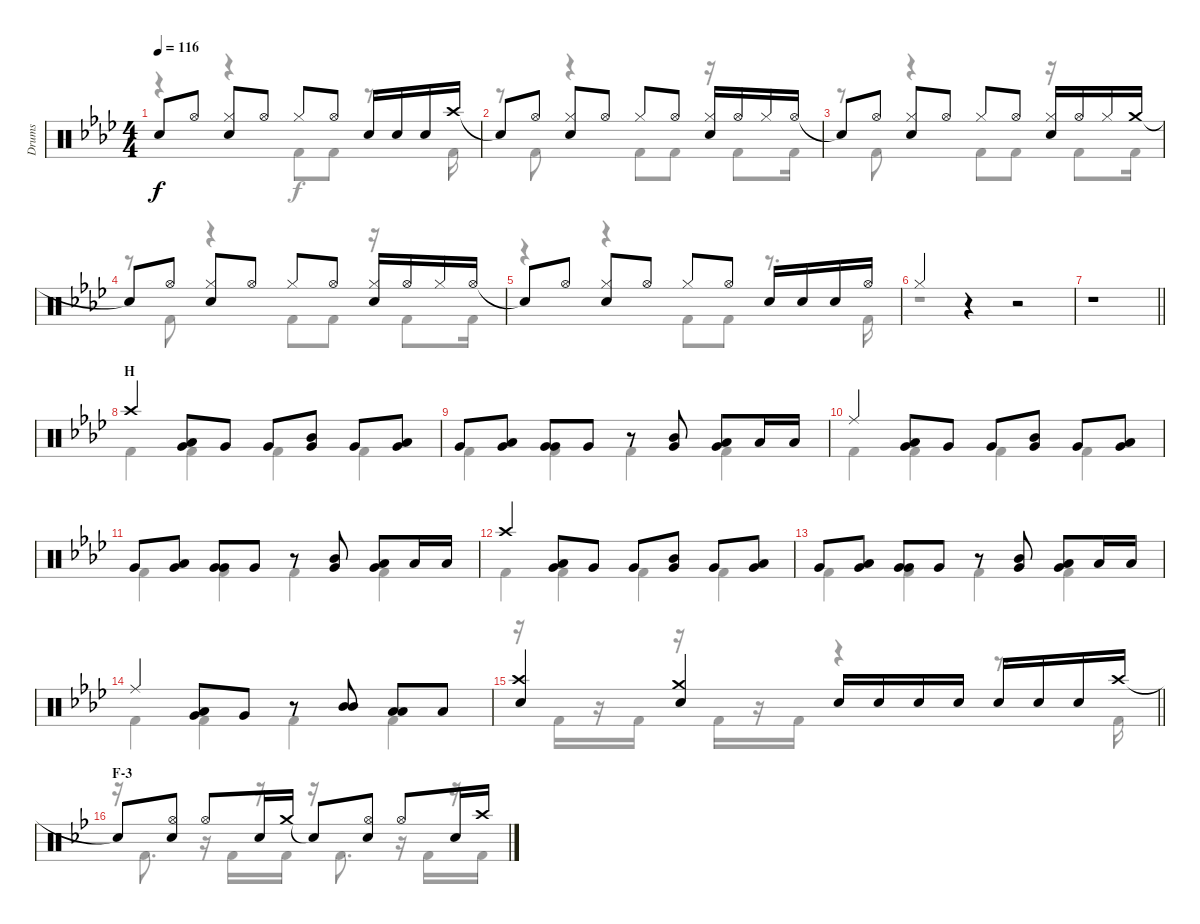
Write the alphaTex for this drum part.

\track ("Drums" "Drums") {instrument percussion}
\staff {score}
\articulation defaults
\voice
\ts (4 4)
\tempo 116
\clef neutral
\ks ab "Snare (hit)"{t}.8{dy f} "Hi-Hat (open)".8
("Hi-Hat (closed)" "Snare (hit) 2").8 "Hi-Hat (open)".8 "Hi-Hat (closed)".8 "Hi-Hat (open)".8 "Snare (hit) 2".16 "Snare (hit) 2".16 "Snare (hit) 2".16 "Crash high (hit)".16 |
"Snare (hit)"{t}.8 "Hi-Hat (open)".8 ("Hi-Hat (closed)" "Snare (hit) 2").8 "Hi-Hat (open)".8 "Hi-Hat (closed)".8 "Hi-Hat (open)".8 ("Hi-Hat (closed)" "Snare (hit) 2").16 "Hi-Hat (open)".16 "Hi-Hat (closed)".16 "Hi-Hat (open)".16 |
"Snare (hit)"{t}.8 "Hi-Hat (open)".8 ("Hi-Hat (closed)" "Snare (hit) 2").8 "Hi-Hat (open)".8 "Hi-Hat (closed)".8 "Hi-Hat (open)".8 ("Hi-Hat (closed)" "Snare (hit) 2").16 "Hi-Hat (open)".16 "Hi-Hat (closed)".16 "Crash medium (hit)".16 |
"Snare (hit)"{t}.8 "Hi-Hat (open)".8 ("Hi-Hat (closed)" "Snare (hit) 2").8 "Hi-Hat (open)".8 "Hi-Hat (closed)".8 "Hi-Hat (open)".8 ("Hi-Hat (closed)" "Snare (hit) 2").16 "Hi-Hat (open)".16 "Hi-Hat (closed)".16 "Hi-Hat (open)".16 |
"Snare (hit)"{t}.8 "Hi-Hat (open)".8 ("Hi-Hat (closed)" "Snare (hit) 2").8 "Hi-Hat (open)".8 "Hi-Hat (closed)".8 "Hi-Hat (open)".8 "Snare (hit) 2".16 "Snare (hit) 2".16 "Snare (hit) 2".16 "Hi-Hat (open)".16 |
"Hi-Hat (closed)".4 r.4 r.2 |
\barLineRight lightlight
r.1 |
\section ("" "H")
"Crash high (hit)".4 ("Low Tom (hit)" "Very Low Tom (hit)").8 "Very Low Tom (hit)".8 "Very Low Tom (hit)".8 ("Mid Tom (hit)" "Very Low Tom (hit)").8 "Very Low Tom (hit)".8 ("Low Tom (hit)" "Very Low Tom (hit)").8 |
"Very Low Tom (hit)".8 ("Low Tom (hit)" "Very Low Tom (hit)").8 ("Very Low Tom (hit)" "Very Low Tom (hit)").8 "Very Low Tom (hit)".8 r.8 ("Mid Tom (hit)" "Very Low Tom (hit)").8 ("Low Tom (hit)" "Very Low Tom (hit)").8 "Low Tom (hit)".16 "Low Tom (hit)".16 |
"Ride (middle)".4 ("Low Tom (hit)" "Very Low Tom (hit)").8 "Very Low Tom (hit)".8 "Very Low Tom (hit)".8 ("Mid Tom (hit)" "Very Low Tom (hit)").8 "Very Low Tom (hit)".8 ("Low Tom (hit)" "Very Low Tom (hit)").8 |
"Very Low Tom (hit)".8 ("Low Tom (hit)" "Very Low Tom (hit)").8 ("Very Low Tom (hit)" "Very Low Tom (hit)").8 "Very Low Tom (hit)".8 r.8 ("Mid Tom (hit)" "Very Low Tom (hit)").8 ("Low Tom (hit)" "Very Low Tom (hit)").8 "Low Tom (hit)".16 "Low Tom (hit)".16 |
"Crash high (hit)".4 ("Low Tom (hit)" "Very Low Tom (hit)").8 "Very Low Tom (hit)".8 "Very Low Tom (hit)".8 ("Mid Tom (hit)" "Very Low Tom (hit)").8 "Very Low Tom (hit)".8 ("Low Tom (hit)" "Very Low Tom (hit)").8 |
"Very Low Tom (hit)".8 ("Low Tom (hit)" "Very Low Tom (hit)").8 ("Very Low Tom (hit)" "Very Low Tom (hit)").8 "Very Low Tom (hit)".8 r.8 ("Mid Tom (hit)" "Very Low Tom (hit)").8 ("Low Tom (hit)" "Very Low Tom (hit)").8 "Low Tom (hit)".16 "Low Tom (hit)".16 |
"Ride (middle)".4 ("Low Tom (hit)" "Very Low Tom (hit)").8 "Very Low Tom (hit)".8 r.8 ("Mid Tom (hit)" "Mid Tom (hit)").8 ("Low Tom (hit)" "Low Tom (hit)").8 "Low Tom (hit)".8 |
\barLineRight lightlight
("Crash high (hit)" "Snare (hit) 2").4 ("Crash medium (hit)" "Snare (hit) 2").4 "Snare (hit) 2".16 "Snare (hit) 2".16 "Snare (hit) 2".16 "Snare (hit) 2".16 "Snare (hit) 2".16 "Snare (hit) 2".16 "Snare (hit) 2".16 "Crash high (hit)".16 |
\section ("" "F-3")
\ks bb "Snare (hit)"{t}.8
("Hi-Hat (open)" "Snare (hit) 2").8 "Hi-Hat (open)".8 "Snare (hit) 2".16 "Crash medium (hit)".16 "Snare (hit)"{t}.8 ("Hi-Hat (open)" "Snare (hit) 2").8 "Hi-Hat (open)".8 "Snare (hit) 2".16 "Crash high (hit)".16
\voice
\clef neutral
\ottava regular
\simile none
\ks ab
r.4{dy f} r.4 "Kick (hit) 2".8 "Kick (hit) 2".8 r.8{d} "Kick (hit) 2".16 |
r.8 "Kick (hit) 2".8 r.4 "Kick (hit) 2".8 "Kick (hit) 2".8 r.16 "Kick (hit) 2".8 "Kick (hit) 2".16 |
r.8 "Kick (hit) 2".8 r.4 "Kick (hit) 2".8 "Kick (hit) 2".8 r.16 "Kick (hit) 2".8 "Kick (hit) 2".16 |
r.8 "Kick (hit) 2".8 r.4 "Kick (hit) 2".8 "Kick (hit) 2".8 r.16 "Kick (hit) 2".8 "Kick (hit) 2".16 |
r.4 r.4 "Kick (hit) 2".8 "Kick (hit) 2".8 r.8{d} "Kick (hit) 2".16 |
r.1 |
\barLineRight lightlight
r.1 |
"Kick (hit) 2".4 "Kick (hit) 2".4 "Kick (hit) 2".4 "Kick (hit) 2".4 |
"Kick (hit) 2".4 "Kick (hit) 2".4 "Kick (hit) 2".4 "Kick (hit) 2".4 |
"Kick (hit) 2".4 "Kick (hit) 2".4 "Kick (hit) 2".4 "Kick (hit) 2".4 |
"Kick (hit) 2".4 "Kick (hit) 2".4 "Kick (hit) 2".4 "Kick (hit) 2".4 |
"Kick (hit) 2".4 "Kick (hit) 2".4 "Kick (hit) 2".4 "Kick (hit) 2".4 |
"Kick (hit) 2".4 "Kick (hit) 2".4 "Kick (hit) 2".4 "Kick (hit) 2".4 |
"Kick (hit) 2".4 "Kick (hit) 2".4 "Kick (hit) 2".4 "Kick (hit) 2".4 |
\barLineRight lightlight
r.16 "Kick (hit) 2".16 r.16 "Kick (hit) 2".16 r.16 "Kick (hit) 2".16 r.16 "Kick (hit) 2".16 r.4 r.8{d} "Kick (hit) 2".16 |
\ks bb
r.16 "Kick (hit) 2".8{d} r.16 "Kick (hit) 2".16 r.16 "Kick (hit) 2".16 r.16 "Kick (hit) 2".8{d} r.16 "Kick (hit) 2".16 r.16 "Kick (hit) 2".16
